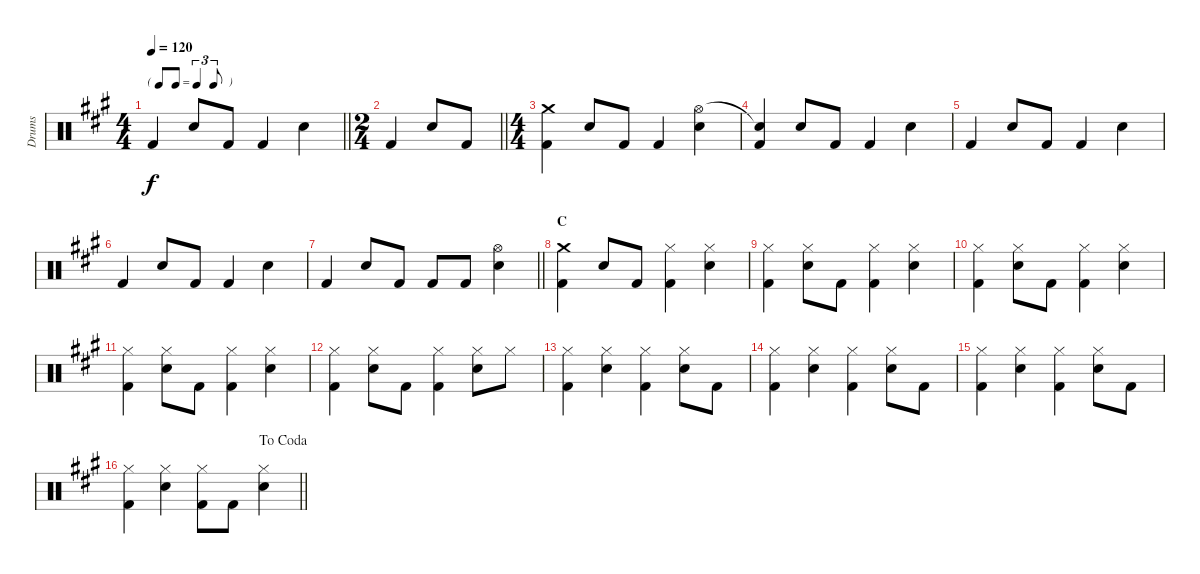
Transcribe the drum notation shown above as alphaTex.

\track ("Drums" "Drums") {instrument percussion}
\staff {score}
\articulation defaults
\ts (4 4)
\tf triplet8th
\tempo 120
\clef neutral
\barLineRight lightlight
\ks a "Kick (hit) 2".4{dy f} "Snare (hit) 2".8 "Kick (hit) 2".8 "Kick (hit) 2".4 "Snare (hit) 2".4
|
\ts (2 4)
\barLineRight lightlight "Kick (hit) 2".4 "Snare (hit) 2".8 "Kick (hit) 2".8
|
\ts (4 4)
("Crash medium (hit)" "Kick (hit) 2").4 "Snare (hit) 2".8 "Kick (hit) 2".8 "Kick (hit) 2".4 ("Hi-Hat (open)" "Snare (hit) 2").4 |
("Snare (hit)"{t} "Kick (hit) 2").4 "Snare (hit) 2".8 "Kick (hit) 2".8 "Kick (hit) 2".4 "Snare (hit) 2".4 |
"Kick (hit) 2".4 "Snare (hit) 2".8 "Kick (hit) 2".8 "Kick (hit) 2".4 "Snare (hit) 2".4 |
"Kick (hit) 2".4 "Snare (hit) 2".8 "Kick (hit) 2".8 "Kick (hit) 2".4 "Snare (hit) 2".4 |
\barLineRight lightlight "Kick (hit) 2".4 "Snare (hit) 2".8 "Kick (hit) 2".8 "Kick (hit) 2".8 "Kick (hit) 2".8
("Hi-Hat (open)" "Snare (hit) 2").4 |
\section ("" "C")
("Crash medium (hit)" "Kick (hit) 2").4 "Snare (hit) 2".8 "Kick (hit) 2".8 ("Hi-Hat (closed)" "Kick (hit) 2").4 ("Hi-Hat (closed)" "Snare (hit) 2").4 |
("Hi-Hat (closed)" "Kick (hit) 2").4 ("Hi-Hat (closed)" "Snare (hit) 2").8 "Kick (hit) 2".8 ("Hi-Hat (closed)" "Kick (hit) 2").4 ("Hi-Hat (closed)" "Snare (hit) 2").4 |
("Hi-Hat (closed)" "Kick (hit) 2").4 ("Hi-Hat (closed)" "Snare (hit) 2").8 "Kick (hit) 2".8 ("Hi-Hat (closed)" "Kick (hit) 2").4 ("Hi-Hat (closed)" "Snare (hit) 2").4 |
("Hi-Hat (closed)" "Kick (hit) 2").4 ("Hi-Hat (closed)" "Snare (hit) 2").8 "Kick (hit) 2".8 ("Hi-Hat (closed)" "Kick (hit) 2").4 ("Hi-Hat (closed)" "Snare (hit) 2").4 |
("Hi-Hat (closed)" "Kick (hit) 2").4 ("Hi-Hat (closed)" "Snare (hit) 2").8 "Kick (hit) 2".8 ("Hi-Hat (closed)" "Kick (hit) 2").4 ("Hi-Hat (closed)" "Snare (hit) 2").8 "Hi-Hat (closed)".8 |
("Hi-Hat (closed)" "Kick (hit) 2").4 ("Hi-Hat (closed)" "Snare (hit) 2").4 ("Hi-Hat (closed)" "Kick (hit) 2").4 ("Hi-Hat (closed)" "Snare (hit) 2").8 "Kick (hit) 2".8 |
("Hi-Hat (closed)" "Kick (hit) 2").4 ("Hi-Hat (closed)" "Snare (hit) 2").4 ("Hi-Hat (closed)" "Kick (hit) 2").4 ("Hi-Hat (closed)" "Snare (hit) 2").8 "Kick (hit) 2".8 |
("Hi-Hat (closed)" "Kick (hit) 2").4 ("Hi-Hat (closed)" "Snare (hit) 2").4 ("Hi-Hat (closed)" "Kick (hit) 2").4 ("Hi-Hat (closed)" "Snare (hit) 2").8 "Kick (hit) 2".8 |
\jump dacoda
\barLineRight lightlight
("Hi-Hat (closed)" "Kick (hit) 2").4 ("Hi-Hat (closed)" "Snare (hit) 2").4 ("Hi-Hat (closed)" "Kick (hit) 2").8 "Kick (hit) 2".8 ("Hi-Hat (closed)" "Snare (hit) 2").4
